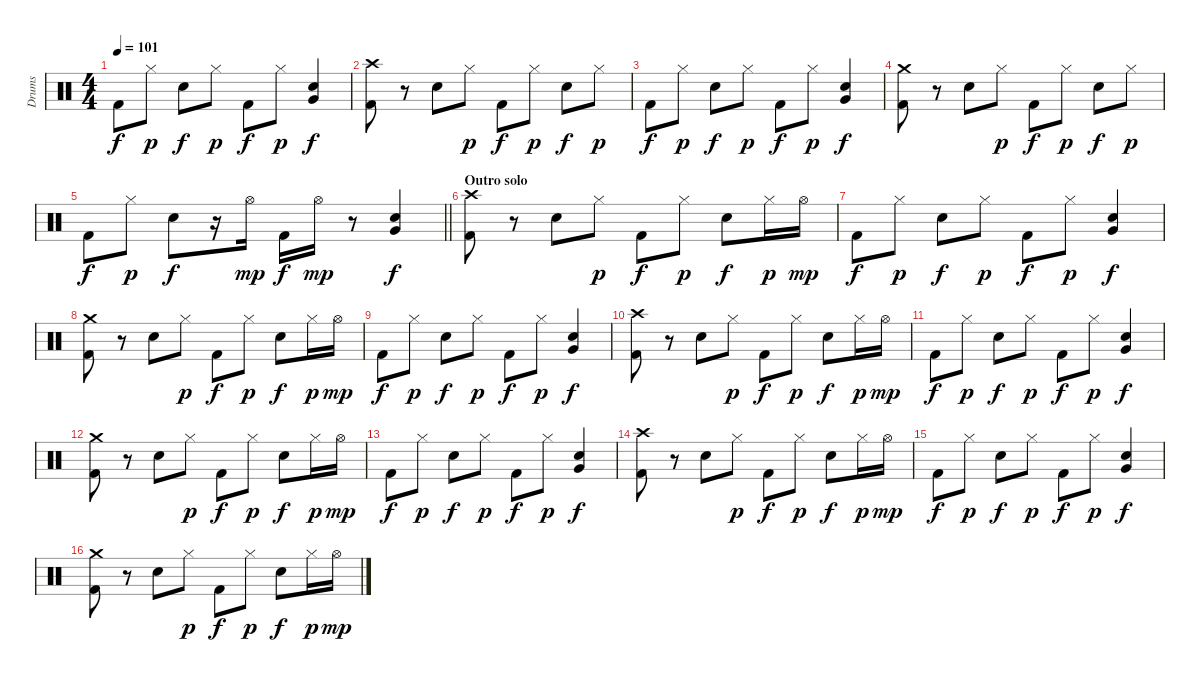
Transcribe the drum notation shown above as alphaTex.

\track ("Drums" "Drums") {instrument percussion}
\staff {score}
\articulation defaults
\ts (4 4)
\tempo 101
\clef neutral
\ks c "Kick (hit) 2".8{dy f} "Hi-Hat (closed)".8{dy p} "Electric Snare (hit)".8{dy f} "Hi-Hat (closed)".8{dy p} "Kick (hit) 2".8{dy f} "Hi-Hat (closed)".8{dy p}
("Electric Snare (hit)" "Very Low Tom (hit)").4{dy f} |
("Crash high (hit)" "Kick (hit) 2").8 r.8 "Electric Snare (hit)".8 "Hi-Hat (closed)".8{dy p} "Kick (hit) 2".8{dy f} "Hi-Hat (closed)".8{dy p} "Electric Snare (hit)".8{dy f} "Hi-Hat (closed)".8{dy p} |
"Kick (hit) 2".8{dy f} "Hi-Hat (closed)".8{dy p} "Electric Snare (hit)".8{dy f} "Hi-Hat (closed)".8{dy p} "Kick (hit) 2".8{dy f} "Hi-Hat (closed)".8{dy p} ("Electric Snare (hit)" "Very Low Tom (hit)").4{dy f} |
("Crash medium (hit)" "Kick (hit) 2").8 r.8 "Electric Snare (hit)".8 "Hi-Hat (closed)".8{dy p} "Kick (hit) 2".8{dy f} "Hi-Hat (closed)".8{dy p} "Electric Snare (hit)".8{dy f} "Hi-Hat (closed)".8{dy p} |
\barLineRight lightlight "Kick (hit) 2".8{dy f} "Hi-Hat (closed)".8{dy p} "Electric Snare (hit)".8{dy f}
r.16 "Hi-Hat (open)".16{dy mp} "Kick (hit) 2".16{dy f} "Hi-Hat (open)".16{dy mp} r.8 ("Electric Snare (hit)" "Very Low Tom (hit)").4{dy f} |
\section ("" "Outro solo")
("Crash high (hit)" "Kick (hit) 2").8 r.8 "Electric Snare (hit)".8 "Hi-Hat (closed)".8{dy p} "Kick (hit) 2".8{dy f} "Hi-Hat (closed)".8{dy p} "Electric Snare (hit)".8{dy f} "Hi-Hat (closed)".16{dy p} "Hi-Hat (open)".16{dy mp} |
"Kick (hit) 2".8{dy f} "Hi-Hat (closed)".8{dy p} "Electric Snare (hit)".8{dy f} "Hi-Hat (closed)".8{dy p} "Kick (hit) 2".8{dy f} "Hi-Hat (closed)".8{dy p} ("Electric Snare (hit)" "Very Low Tom (hit)").4{dy f} |
("Crash medium (hit)" "Kick (hit) 2").8 r.8 "Electric Snare (hit)".8 "Hi-Hat (closed)".8{dy p} "Kick (hit) 2".8{dy f} "Hi-Hat (closed)".8{dy p} "Electric Snare (hit)".8{dy f} "Hi-Hat (closed)".16{dy p} "Hi-Hat (open)".16{dy mp} |
"Kick (hit) 2".8{dy f} "Hi-Hat (closed)".8{dy p} "Electric Snare (hit)".8{dy f} "Hi-Hat (closed)".8{dy p} "Kick (hit) 2".8{dy f} "Hi-Hat (closed)".8{dy p} ("Electric Snare (hit)" "Very Low Tom (hit)").4{dy f} |
("Crash high (hit)" "Kick (hit) 2").8 r.8 "Electric Snare (hit)".8 "Hi-Hat (closed)".8{dy p} "Kick (hit) 2".8{dy f} "Hi-Hat (closed)".8{dy p} "Electric Snare (hit)".8{dy f} "Hi-Hat (closed)".16{dy p} "Hi-Hat (open)".16{dy mp} |
"Kick (hit) 2".8{dy f} "Hi-Hat (closed)".8{dy p} "Electric Snare (hit)".8{dy f} "Hi-Hat (closed)".8{dy p} "Kick (hit) 2".8{dy f} "Hi-Hat (closed)".8{dy p} ("Electric Snare (hit)" "Very Low Tom (hit)").4{dy f} |
("Crash medium (hit)" "Kick (hit) 2").8 r.8 "Electric Snare (hit)".8 "Hi-Hat (closed)".8{dy p} "Kick (hit) 2".8{dy f} "Hi-Hat (closed)".8{dy p} "Electric Snare (hit)".8{dy f} "Hi-Hat (closed)".16{dy p} "Hi-Hat (open)".16{dy mp} |
"Kick (hit) 2".8{dy f} "Hi-Hat (closed)".8{dy p} "Electric Snare (hit)".8{dy f} "Hi-Hat (closed)".8{dy p} "Kick (hit) 2".8{dy f} "Hi-Hat (closed)".8{dy p} ("Electric Snare (hit)" "Very Low Tom (hit)").4{dy f} |
("Crash high (hit)" "Kick (hit) 2").8 r.8 "Electric Snare (hit)".8 "Hi-Hat (closed)".8{dy p} "Kick (hit) 2".8{dy f} "Hi-Hat (closed)".8{dy p} "Electric Snare (hit)".8{dy f} "Hi-Hat (closed)".16{dy p} "Hi-Hat (open)".16{dy mp} |
"Kick (hit) 2".8{dy f} "Hi-Hat (closed)".8{dy p} "Electric Snare (hit)".8{dy f} "Hi-Hat (closed)".8{dy p} "Kick (hit) 2".8{dy f} "Hi-Hat (closed)".8{dy p} ("Electric Snare (hit)" "Very Low Tom (hit)").4{dy f} |
("Crash medium (hit)" "Kick (hit) 2").8 r.8 "Electric Snare (hit)".8 "Hi-Hat (closed)".8{dy p} "Kick (hit) 2".8{dy f} "Hi-Hat (closed)".8{dy p} "Electric Snare (hit)".8{dy f} "Hi-Hat (closed)".16{dy p} "Hi-Hat (open)".16{dy mp}
